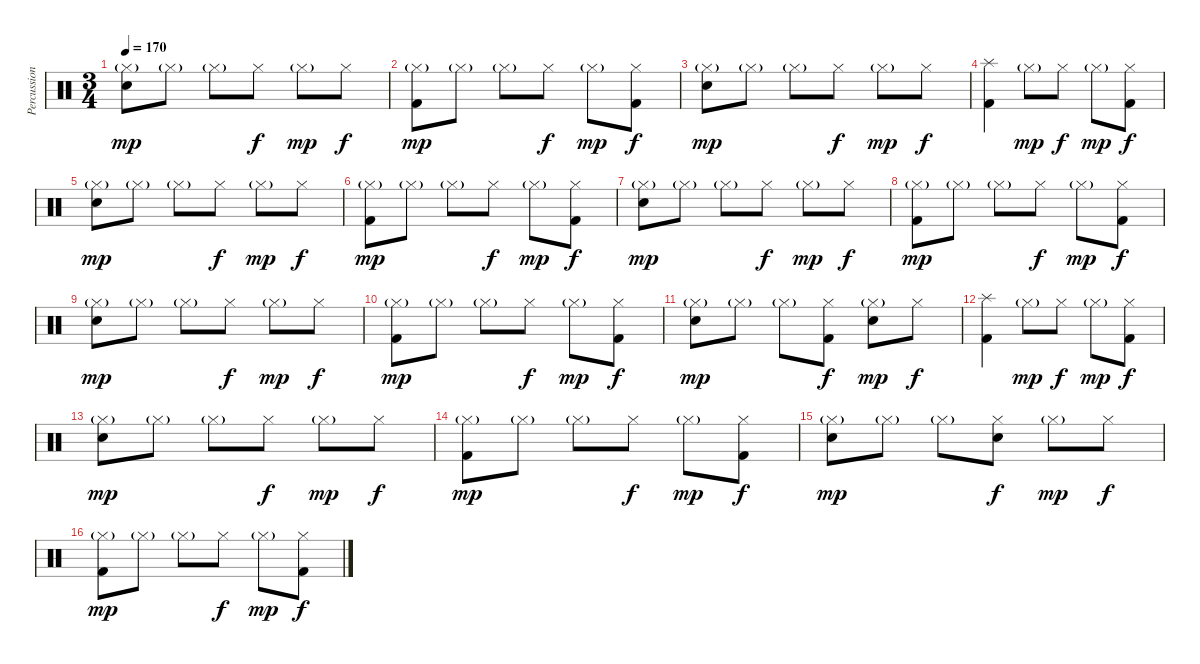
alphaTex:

\track ("Percussion" "Percussion") {instrument percussion}
\staff {score}
\articulation defaults
\ts (3 4)
\tempo 170
\clef neutral
\ks c
("Hi-Hat (closed)"{g} "Electric Snare (hit)").8{dy mp} "Hi-Hat (closed)"{g}.8 "Hi-Hat (closed)"{g}.8 "Hi-Hat (closed)".8{dy f} "Hi-Hat (closed)"{g}.8{dy mp} "Hi-Hat (closed)".8{dy f} |
("Hi-Hat (closed)"{g} "Kick (hit) 2").8{dy mp} "Hi-Hat (closed)"{g}.8 "Hi-Hat (closed)"{g}.8 "Hi-Hat (closed)".8{dy f} "Hi-Hat (closed)"{g}.8{dy mp} ("Hi-Hat (closed)" "Kick (hit) 2").8{dy f} |
("Hi-Hat (closed)"{g} "Electric Snare (hit)").8{dy mp} "Hi-Hat (closed)"{g}.8 "Hi-Hat (closed)"{g}.8 "Hi-Hat (closed)".8{dy f} "Hi-Hat (closed)"{g}.8{dy mp} "Hi-Hat (closed)".8{dy f} |
("Splash (hit)" "Kick (hit) 2").4 "Hi-Hat (closed)"{g}.8{dy mp} "Hi-Hat (closed)".8{dy f} "Hi-Hat (closed)"{g}.8{dy mp} ("Hi-Hat (closed)" "Kick (hit) 2").8{dy f} |
("Hi-Hat (closed)"{g} "Electric Snare (hit)").8{dy mp} "Hi-Hat (closed)"{g}.8 "Hi-Hat (closed)"{g}.8 "Hi-Hat (closed)".8{dy f} "Hi-Hat (closed)"{g}.8{dy mp} "Hi-Hat (closed)".8{dy f} |
("Hi-Hat (closed)"{g} "Kick (hit) 2").8{dy mp} "Hi-Hat (closed)"{g}.8 "Hi-Hat (closed)"{g}.8 "Hi-Hat (closed)".8{dy f} "Hi-Hat (closed)"{g}.8{dy mp} ("Hi-Hat (closed)" "Kick (hit) 2").8{dy f} |
("Hi-Hat (closed)"{g} "Electric Snare (hit)").8{dy mp} "Hi-Hat (closed)"{g}.8 "Hi-Hat (closed)"{g}.8 "Hi-Hat (closed)".8{dy f} "Hi-Hat (closed)"{g}.8{dy mp} "Hi-Hat (closed)".8{dy f} |
("Hi-Hat (closed)"{g} "Kick (hit) 2").8{dy mp} "Hi-Hat (closed)"{g}.8 "Hi-Hat (closed)"{g}.8 "Hi-Hat (closed)".8{dy f} "Hi-Hat (closed)"{g}.8{dy mp} ("Hi-Hat (closed)" "Kick (hit) 2").8{dy f} |
("Hi-Hat (closed)"{g} "Electric Snare (hit)").8{dy mp} "Hi-Hat (closed)"{g}.8 "Hi-Hat (closed)"{g}.8 "Hi-Hat (closed)".8{dy f} "Hi-Hat (closed)"{g}.8{dy mp} "Hi-Hat (closed)".8{dy f} |
("Hi-Hat (closed)"{g} "Kick (hit) 2").8{dy mp} "Hi-Hat (closed)"{g}.8 "Hi-Hat (closed)"{g}.8 "Hi-Hat (closed)".8{dy f} "Hi-Hat (closed)"{g}.8{dy mp} ("Hi-Hat (closed)" "Kick (hit) 2").8{dy f} |
("Hi-Hat (closed)"{g} "Electric Snare (hit)").8{dy mp} "Hi-Hat (closed)"{g}.8 "Hi-Hat (closed)"{g}.8 ("Hi-Hat (closed)" "Kick (hit) 2").8{dy f} ("Hi-Hat (closed)"{g} "Electric Snare (hit)").8{dy mp} "Hi-Hat (closed)".8{dy f} |
("Splash (hit)" "Kick (hit) 2").4 "Hi-Hat (closed)"{g}.8{dy mp} "Hi-Hat (closed)".8{dy f} "Hi-Hat (closed)"{g}.8{dy mp} ("Hi-Hat (closed)" "Kick (hit) 2").8{dy f} |
("Hi-Hat (closed)"{g} "Electric Snare (hit)").8{dy mp} "Hi-Hat (closed)"{g}.8 "Hi-Hat (closed)"{g}.8 "Hi-Hat (closed)".8{dy f} "Hi-Hat (closed)"{g}.8{dy mp} "Hi-Hat (closed)".8{dy f} |
("Hi-Hat (closed)"{g} "Kick (hit) 2").8{dy mp} "Hi-Hat (closed)"{g}.8 "Hi-Hat (closed)"{g}.8 "Hi-Hat (closed)".8{dy f} "Hi-Hat (closed)"{g}.8{dy mp} ("Hi-Hat (closed)" "Kick (hit) 2").8{dy f} |
("Hi-Hat (closed)"{g} "Electric Snare (hit)").8{dy mp} "Hi-Hat (closed)"{g}.8 "Hi-Hat (closed)"{g}.8 ("Hi-Hat (closed)" "Electric Snare (hit)").8{dy f} "Hi-Hat (closed)"{g}.8{dy mp} "Hi-Hat (closed)".8{dy f} |
("Hi-Hat (closed)"{g} "Kick (hit) 2").8{dy mp} "Hi-Hat (closed)"{g}.8 "Hi-Hat (closed)"{g}.8 "Hi-Hat (closed)".8{dy f} "Hi-Hat (closed)"{g}.8{dy mp} ("Hi-Hat (closed)" "Kick (hit) 2").8{dy f}
